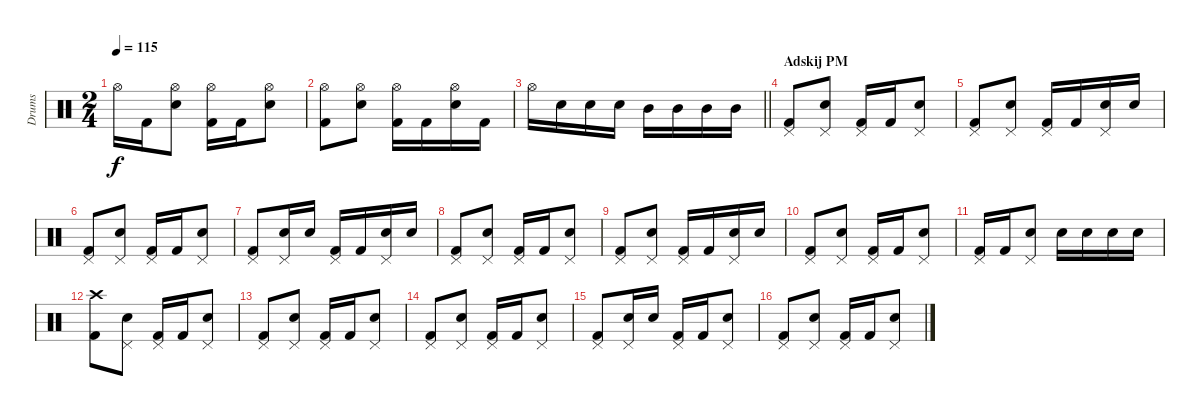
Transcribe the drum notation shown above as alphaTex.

\track ("Drums" "Drums") {instrument percussion}
\staff {score}
\articulation defaults
\ts (2 4)
\tempo 115
\clef neutral
\ks c "Hi-Hat (open)".16{dy f} "Kick (hit) 2".16
("Hi-Hat (open)" "Electric Snare (hit)").8 ("Hi-Hat (open)" "Kick (hit) 2").16 "Kick (hit) 2".16 ("Hi-Hat (open)" "Electric Snare (hit)").8 |
("Hi-Hat (open)" "Kick (hit) 2").8 ("Hi-Hat (open)" "Electric Snare (hit)").8 ("Hi-Hat (open)" "Kick (hit) 2").16 "Kick (hit) 2".16 ("Hi-Hat (open)" "Electric Snare (hit)").16 "Kick (hit) 2".16 |
\barLineRight lightlight "Hi-Hat (open)".16 "Electric Snare (hit)".16 "Electric Snare (hit)".16 "Electric Snare (hit)".16 "Mid Tom (hit)".16 "Mid Tom (hit)".16 "Mid Tom (hit)".16 "Mid Tom (hit)".16
|
\section ("" "Adskij PM")
("Pedal Hi-Hat (hit)" "Kick (hit) 2").8 ("Pedal Hi-Hat (hit)" "Electric Snare (hit)").8 ("Pedal Hi-Hat (hit)" "Kick (hit) 2").16 "Kick (hit) 2".16 ("Pedal Hi-Hat (hit)" "Electric Snare (hit)").8 |
("Pedal Hi-Hat (hit)" "Kick (hit) 2").8 ("Pedal Hi-Hat (hit)" "Electric Snare (hit)").8 ("Pedal Hi-Hat (hit)" "Kick (hit) 2").16 "Kick (hit) 2".16 ("Pedal Hi-Hat (hit)" "Electric Snare (hit)").16 "Electric Snare (hit)".16 |
("Pedal Hi-Hat (hit)" "Kick (hit) 2").8 ("Pedal Hi-Hat (hit)" "Electric Snare (hit)").8 ("Pedal Hi-Hat (hit)" "Kick (hit) 2").16 "Kick (hit) 2".16 ("Pedal Hi-Hat (hit)" "Electric Snare (hit)").8 |
("Pedal Hi-Hat (hit)" "Kick (hit) 2").8 ("Pedal Hi-Hat (hit)" "Electric Snare (hit)").16 "Electric Snare (hit)".16 ("Pedal Hi-Hat (hit)" "Kick (hit) 2").16 "Kick (hit) 2".16 ("Pedal Hi-Hat (hit)" "Electric Snare (hit)").16 "Electric Snare (hit)".16 |
("Pedal Hi-Hat (hit)" "Kick (hit) 2").8 ("Pedal Hi-Hat (hit)" "Electric Snare (hit)").8 ("Pedal Hi-Hat (hit)" "Kick (hit) 2").16 "Kick (hit) 2".16 ("Pedal Hi-Hat (hit)" "Electric Snare (hit)").8 |
("Pedal Hi-Hat (hit)" "Kick (hit) 2").8 ("Pedal Hi-Hat (hit)" "Electric Snare (hit)").8 ("Pedal Hi-Hat (hit)" "Kick (hit) 2").16 "Kick (hit) 2".16 ("Pedal Hi-Hat (hit)" "Electric Snare (hit)").16 "Electric Snare (hit)".16 |
("Pedal Hi-Hat (hit)" "Kick (hit) 2").8 ("Pedal Hi-Hat (hit)" "Electric Snare (hit)").8 ("Pedal Hi-Hat (hit)" "Kick (hit) 2").16 "Kick (hit) 2".16 ("Pedal Hi-Hat (hit)" "Electric Snare (hit)").8 |
("Pedal Hi-Hat (hit)" "Kick (hit) 2").16 "Kick (hit) 2".16 ("Pedal Hi-Hat (hit)" "Electric Snare (hit)").8 "Electric Snare (hit)".16 "Electric Snare (hit)".16 "Electric Snare (hit)".16 "Electric Snare (hit)".16 |
("Crash high (hit)" "Kick (hit) 2").8 ("Pedal Hi-Hat (hit)" "Electric Snare (hit)").8 ("Pedal Hi-Hat (hit)" "Kick (hit) 2").16 "Kick (hit) 2".16 ("Pedal Hi-Hat (hit)" "Electric Snare (hit)").8 |
("Pedal Hi-Hat (hit)" "Kick (hit) 2").8 ("Pedal Hi-Hat (hit)" "Electric Snare (hit)").8 ("Pedal Hi-Hat (hit)" "Kick (hit) 2").16 "Kick (hit) 2".16 ("Pedal Hi-Hat (hit)" "Electric Snare (hit)").8 |
("Pedal Hi-Hat (hit)" "Kick (hit) 2").8 ("Pedal Hi-Hat (hit)" "Electric Snare (hit)").8 ("Pedal Hi-Hat (hit)" "Kick (hit) 2").16 "Kick (hit) 2".16 ("Pedal Hi-Hat (hit)" "Electric Snare (hit)").8 |
("Pedal Hi-Hat (hit)" "Kick (hit) 2").8 ("Pedal Hi-Hat (hit)" "Electric Snare (hit)").16 "Electric Snare (hit)".16 ("Pedal Hi-Hat (hit)" "Kick (hit) 2").16 "Kick (hit) 2".16 ("Pedal Hi-Hat (hit)" "Electric Snare (hit)").8 |
("Pedal Hi-Hat (hit)" "Kick (hit) 2").8 ("Pedal Hi-Hat (hit)" "Electric Snare (hit)").8 ("Pedal Hi-Hat (hit)" "Kick (hit) 2").16 "Kick (hit) 2".16 ("Pedal Hi-Hat (hit)" "Electric Snare (hit)").8
